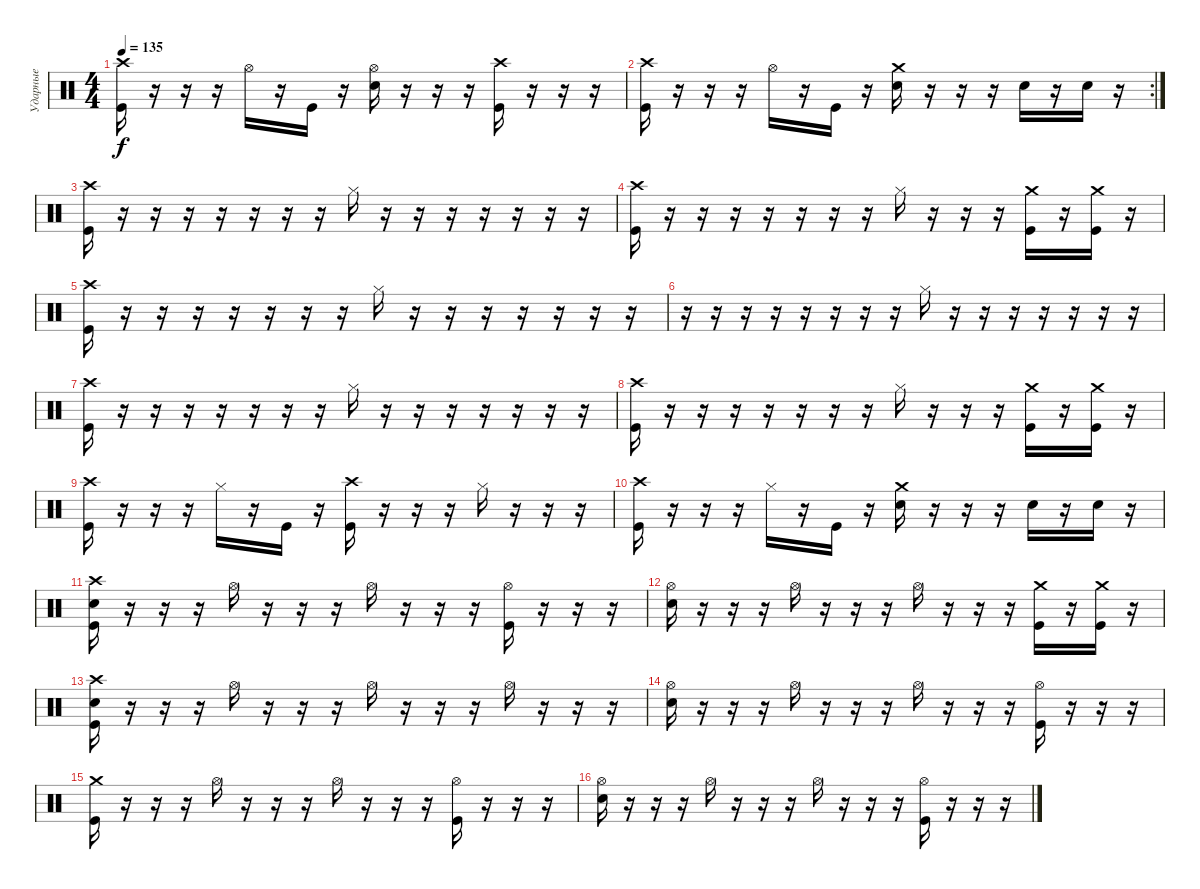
\track ("Ударные" "Ударные") {instrument percussion}
\staff {score}
\articulation defaults
\ts (4 4)
\tempo 135
\clef neutral
\ks c
("Crash high (hit)" "Kick (hit)").16{dy f} r.16 r.16 r.16 "Hi-Hat (open)".16 r.16 "Kick (hit)".16 r.16 ("Hi-Hat (open)" "Electric Snare (hit)").16 r.16 r.16 r.16 ("Crash high (hit)" "Kick (hit)").16 r.16 r.16 r.16 |
\rc 2
("Crash high (hit)" "Kick (hit)").16 r.16 r.16 r.16 "Hi-Hat (open)".16 r.16 "Kick (hit)".16 r.16 ("Crash medium (hit)" "Electric Snare (hit)").16 r.16 r.16 r.16 "Electric Snare (hit)".16 r.16 "Electric Snare (hit)".16 r.16 |
("Crash high (hit)" "Kick (hit)").16 r.16 r.16 r.16 r.16 r.16 r.16 r.16 "Hi-Hat (closed)".16 r.16 r.16 r.16 r.16 r.16 r.16 r.16 |
("Crash high (hit)" "Kick (hit)").16 r.16 r.16 r.16 r.16 r.16 r.16 r.16 "Hi-Hat (closed)".16 r.16 r.16 r.16 ("Crash medium (hit)" "Kick (hit)").16 r.16 ("Crash medium (hit)" "Kick (hit)").16 r.16 |
("Crash high (hit)" "Kick (hit)").16 r.16 r.16 r.16 r.16 r.16 r.16 r.16 "Hi-Hat (closed)".16 r.16 r.16 r.16 r.16 r.16 r.16 r.16 |
r.16 r.16 r.16 r.16 r.16 r.16 r.16 r.16 "Hi-Hat (closed)".16 r.16 r.16 r.16 r.16 r.16 r.16 r.16 |
("Crash high (hit)" "Kick (hit)").16 r.16 r.16 r.16 r.16 r.16 r.16 r.16 "Hi-Hat (closed)".16 r.16 r.16 r.16 r.16 r.16 r.16 r.16 |
("Crash high (hit)" "Kick (hit)").16 r.16 r.16 r.16 r.16 r.16 r.16 r.16 "Hi-Hat (closed)".16 r.16 r.16 r.16 ("Crash medium (hit)" "Kick (hit)").16 r.16 ("Crash medium (hit)" "Kick (hit)").16 r.16 |
("Crash high (hit)" "Kick (hit)").16 r.16 r.16 r.16 "Hi-Hat (closed)".16 r.16 "Kick (hit)".16 r.16 ("Crash high (hit)" "Kick (hit)").16 r.16 r.16 r.16 "Hi-Hat (closed)".16 r.16 r.16 r.16 |
("Crash high (hit)" "Kick (hit)").16 r.16 r.16 r.16 "Hi-Hat (closed)".16 r.16 "Kick (hit)".16 r.16 ("Crash medium (hit)" "Electric Snare (hit)").16 r.16 r.16 r.16 "Electric Snare (hit)".16 r.16 "Electric Snare (hit)".16 r.16 |
("Crash high (hit)" "Electric Snare (hit)" "Kick (hit)").16 r.16 r.16 r.16 "Hi-Hat (open)".16 r.16 r.16 r.16 "Hi-Hat (open)".16 r.16 r.16 r.16 ("Hi-Hat (open)" "Kick (hit)").16 r.16 r.16 r.16 |
("Hi-Hat (open)" "Electric Snare (hit)").16 r.16 r.16 r.16 "Hi-Hat (open)".16 r.16 r.16 r.16 "Hi-Hat (open)".16 r.16 r.16 r.16 ("Crash medium (hit)" "Kick (hit)").16 r.16 ("Crash medium (hit)" "Kick (hit)").16 r.16 |
("Crash high (hit)" "Electric Snare (hit)" "Kick (hit)").16 r.16 r.16 r.16 "Hi-Hat (open)".16 r.16 r.16 r.16 "Hi-Hat (open)".16 r.16 r.16 r.16 "Hi-Hat (open)".16 r.16 r.16 r.16 |
("Hi-Hat (open)" "Electric Snare (hit)").16 r.16 r.16 r.16 "Hi-Hat (open)".16 r.16 r.16 r.16 "Hi-Hat (open)".16 r.16 r.16 r.16 ("Hi-Hat (open)" "Kick (hit)").16 r.16 r.16 r.16 |
("Crash medium (hit)" "Kick (hit)").16 r.16 r.16 r.16 "Hi-Hat (open)".16 r.16 r.16 r.16 "Hi-Hat (open)".16 r.16 r.16 r.16 ("Hi-Hat (open)" "Kick (hit)").16 r.16 r.16 r.16 |
("Hi-Hat (open)" "Electric Snare (hit)").16 r.16 r.16 r.16 "Hi-Hat (open)".16 r.16 r.16 r.16 "Hi-Hat (open)".16 r.16 r.16 r.16 ("Hi-Hat (open)" "Kick (hit)").16 r.16 r.16 r.16
